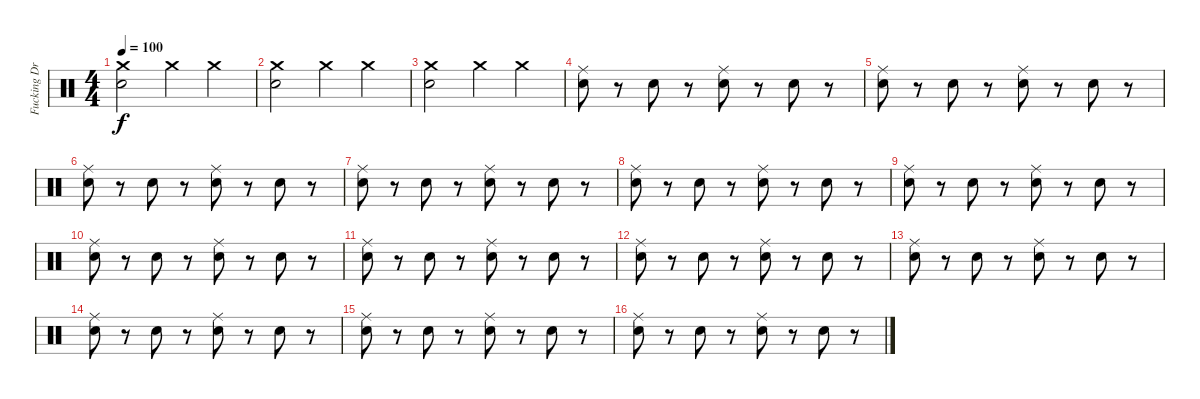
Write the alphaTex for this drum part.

\track ("Fucking Drums Thats It" "Fucking Dr") {instrument percussion}
\staff {score}
\articulation defaults
\ts (4 4)
\tempo 100
\clef neutral
\ks c
("Crash medium (hit)" "Snare (hit) 2").2{dy f} "Crash medium (hit)".4 "Crash medium (hit)".4 |
("Crash medium (hit)" "Snare (hit) 2").2 "Crash medium (hit)".4 "Crash medium (hit)".4 |
("Crash medium (hit)" "Snare (hit) 2").2 "Crash medium (hit)".4 "Crash medium (hit)".4 |
("Ride (middle)" "Snare (hit) 2").8 r.8 "Snare (hit) 2".8 r.8 ("Ride (middle)" "Snare (hit) 2").8 r.8 "Snare (hit) 2".8 r.8 |
("Ride (middle)" "Snare (hit) 2").8 r.8 "Snare (hit) 2".8 r.8 ("Ride (middle)" "Snare (hit) 2").8 r.8 "Snare (hit) 2".8 r.8 |
("Ride (middle)" "Snare (hit) 2").8 r.8 "Snare (hit) 2".8 r.8 ("Ride (middle)" "Snare (hit) 2").8 r.8 "Snare (hit) 2".8 r.8 |
("Ride (middle)" "Snare (hit) 2").8 r.8 "Snare (hit) 2".8 r.8 ("Ride (middle)" "Snare (hit) 2").8 r.8 "Snare (hit) 2".8 r.8 |
("Ride (middle)" "Snare (hit) 2").8 r.8 "Snare (hit) 2".8 r.8 ("Ride (middle)" "Snare (hit) 2").8 r.8 "Snare (hit) 2".8 r.8 |
("Ride (middle)" "Snare (hit) 2").8 r.8 "Snare (hit) 2".8 r.8 ("Ride (middle)" "Snare (hit) 2").8 r.8 "Snare (hit) 2".8 r.8 |
("Ride (middle)" "Snare (hit) 2").8 r.8 "Snare (hit) 2".8 r.8 ("Ride (middle)" "Snare (hit) 2").8 r.8 "Snare (hit) 2".8 r.8 |
("Ride (middle)" "Snare (hit) 2").8 r.8 "Snare (hit) 2".8 r.8 ("Ride (middle)" "Snare (hit) 2").8 r.8 "Snare (hit) 2".8 r.8 |
("Ride (middle)" "Snare (hit) 2").8 r.8 "Snare (hit) 2".8 r.8 ("Ride (middle)" "Snare (hit) 2").8 r.8 "Snare (hit) 2".8 r.8 |
("Ride (middle)" "Snare (hit) 2").8 r.8 "Snare (hit) 2".8 r.8 ("Ride (middle)" "Snare (hit) 2").8 r.8 "Snare (hit) 2".8 r.8 |
("Ride (middle)" "Snare (hit) 2").8 r.8 "Snare (hit) 2".8 r.8 ("Ride (middle)" "Snare (hit) 2").8 r.8 "Snare (hit) 2".8 r.8 |
("Ride (middle)" "Snare (hit) 2").8 r.8 "Snare (hit) 2".8 r.8 ("Ride (middle)" "Snare (hit) 2").8 r.8 "Snare (hit) 2".8 r.8 |
("Ride (middle)" "Snare (hit) 2").8 r.8 "Snare (hit) 2".8 r.8 ("Ride (middle)" "Snare (hit) 2").8 r.8 "Snare (hit) 2".8 r.8
